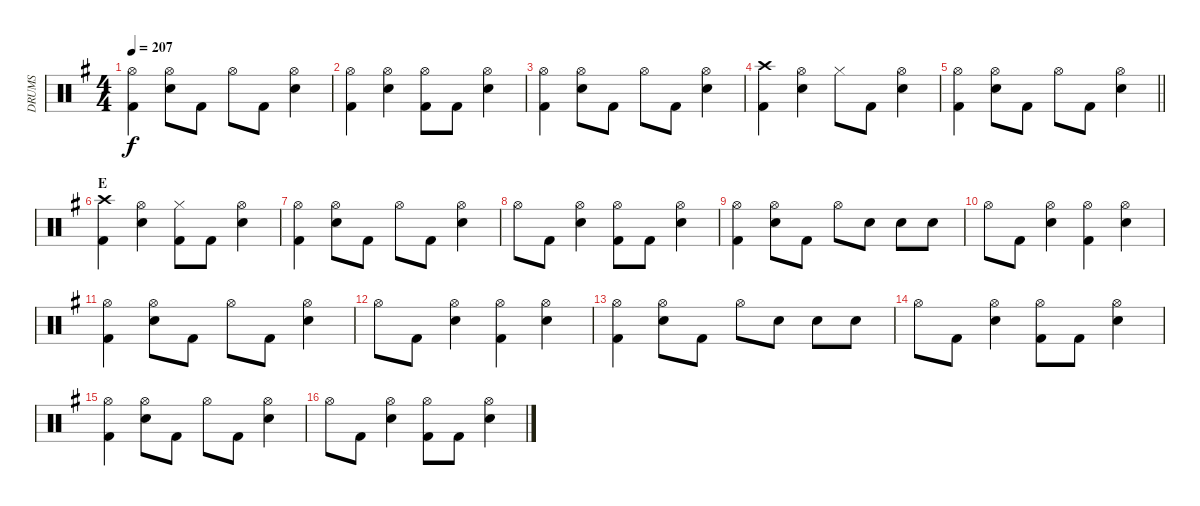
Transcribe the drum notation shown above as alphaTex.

\track ("DRUMS" "DRUMS") {instrument percussion}
\staff {score}
\articulation defaults
\ts (4 4)
\tempo 207
\clef neutral
\ks eminor
("Hi-Hat (open)" "Kick (hit) 2").4{dy f} ("Hi-Hat (open)" "Snare (hit) 2").8 "Kick (hit) 2".8 "Hi-Hat (open)".8 "Kick (hit) 2".8 ("Hi-Hat (open)" "Snare (hit) 2").4 |
("Hi-Hat (open)" "Kick (hit) 2").4 ("Hi-Hat (open)" "Snare (hit) 2").4 ("Hi-Hat (open)" "Kick (hit) 2").8 "Kick (hit) 2".8 ("Hi-Hat (open)" "Snare (hit) 2").4 |
("Hi-Hat (open)" "Kick (hit) 2").4 ("Hi-Hat (open)" "Snare (hit) 2").8 "Kick (hit) 2".8 "Hi-Hat (open)".8 "Kick (hit) 2".8 ("Hi-Hat (open)" "Snare (hit) 2").4 |
("Crash high (hit)" "Kick (hit) 2").4 ("Hi-Hat (open)" "Snare (hit) 2").4 "Hi-Hat (closed)".8 "Kick (hit) 2".8 ("Hi-Hat (open)" "Snare (hit) 2").4 |
\barLineRight lightlight
("Hi-Hat (open)" "Kick (hit) 2").4 ("Hi-Hat (open)" "Snare (hit) 2").8 "Kick (hit) 2".8 "Hi-Hat (open)".8 "Kick (hit) 2".8 ("Hi-Hat (open)" "Snare (hit) 2").4 |
\section ("" "E")
("Crash high (hit)" "Kick (hit) 2").4 ("Hi-Hat (open)" "Snare (hit) 2").4 ("Hi-Hat (closed)" "Kick (hit) 2").8 "Kick (hit) 2".8 ("Hi-Hat (open)" "Snare (hit) 2").4 |
("Hi-Hat (open)" "Kick (hit) 2").4 ("Hi-Hat (open)" "Snare (hit) 2").8 "Kick (hit) 2".8 "Hi-Hat (open)".8 "Kick (hit) 2".8 ("Hi-Hat (open)" "Snare (hit) 2").4 |
"Hi-Hat (open)".8 "Kick (hit) 2".8 ("Hi-Hat (open)" "Snare (hit) 2").4 ("Hi-Hat (open)" "Kick (hit) 2").8 "Kick (hit) 2".8 ("Hi-Hat (open)" "Snare (hit) 2").4 |
("Hi-Hat (open)" "Kick (hit) 2").4 ("Hi-Hat (open)" "Snare (hit) 2").8 "Kick (hit) 2".8 "Hi-Hat (open)".8 "Snare (hit) 2".8 "Snare (hit) 2".8 "Snare (hit) 2".8 |
"Hi-Hat (open)".8 "Kick (hit) 2".8 ("Hi-Hat (open)" "Snare (hit) 2").4 ("Hi-Hat (open)" "Kick (hit) 2").4 ("Hi-Hat (open)" "Snare (hit) 2").4 |
("Hi-Hat (open)" "Kick (hit) 2").4 ("Hi-Hat (open)" "Snare (hit) 2").8 "Kick (hit) 2".8 "Hi-Hat (open)".8 "Kick (hit) 2".8 ("Hi-Hat (open)" "Snare (hit) 2").4 |
"Hi-Hat (open)".8 "Kick (hit) 2".8 ("Hi-Hat (open)" "Snare (hit) 2").4 ("Hi-Hat (open)" "Kick (hit) 2").4 ("Hi-Hat (open)" "Snare (hit) 2").4 |
("Hi-Hat (open)" "Kick (hit) 2").4 ("Hi-Hat (open)" "Snare (hit) 2").8 "Kick (hit) 2".8 "Hi-Hat (open)".8 "Snare (hit) 2".8 "Snare (hit) 2".8 "Snare (hit) 2".8 |
"Hi-Hat (open)".8 "Kick (hit) 2".8 ("Hi-Hat (open)" "Snare (hit) 2").4 ("Hi-Hat (open)" "Kick (hit) 2").8 "Kick (hit) 2".8 ("Hi-Hat (open)" "Snare (hit) 2").4 |
("Hi-Hat (open)" "Kick (hit) 2").4 ("Hi-Hat (open)" "Snare (hit) 2").8 "Kick (hit) 2".8 "Hi-Hat (open)".8 "Kick (hit) 2".8 ("Hi-Hat (open)" "Snare (hit) 2").4 |
"Hi-Hat (open)".8 "Kick (hit) 2".8 ("Hi-Hat (open)" "Snare (hit) 2").4 ("Hi-Hat (open)" "Kick (hit) 2").8 "Kick (hit) 2".8 ("Hi-Hat (open)" "Snare (hit) 2").4
